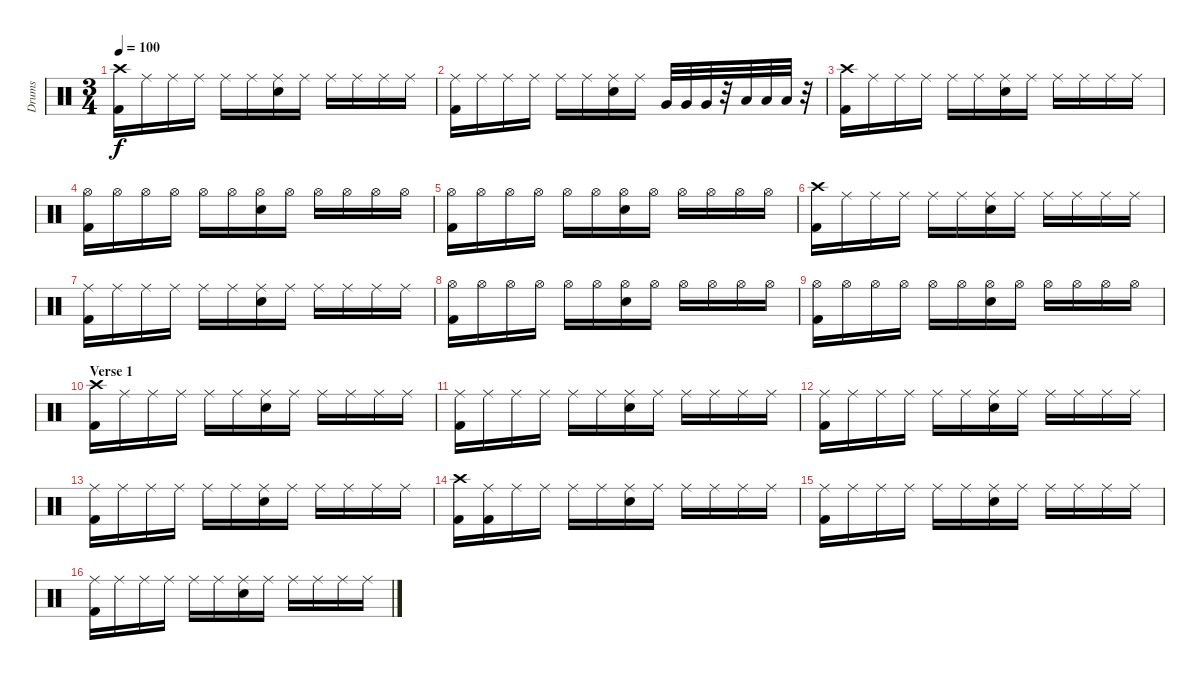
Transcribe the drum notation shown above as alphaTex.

\track ("Drums" "Drums") {instrument percussion}
\staff {score}
\articulation defaults
\ts (3 4)
\tempo 100
\clef neutral
\ks c
("Crash high (hit)" "Kick (hit) 2").16{dy f} "Ride (middle)".16 "Ride (middle)".16 "Ride (middle)".16 "Ride (middle)".16 "Ride (middle)".16 ("Ride (middle)" "Electric Snare (hit)").16 "Ride (middle)".16 "Ride (middle)".16 "Ride (middle)".16 "Ride (middle)".16 "Ride (middle)".16 |
("Ride (middle)" "Kick (hit) 2").16 "Ride (middle)".16 "Ride (middle)".16 "Ride (middle)".16 "Ride (middle)".16 "Ride (middle)".16 ("Ride (middle)" "Electric Snare (hit)").16 "Ride (middle)".16 "Very Low Tom (hit)".32 "Very Low Tom (hit)".32 "Very Low Tom (hit)".32 r.32 "Low Floor Tom (hit)".32 "Low Floor Tom (hit)".32 "Low Floor Tom (hit)".32 r.32 |
("Crash high (hit)" "Kick (hit) 2").16 "Ride (middle)".16 "Ride (middle)".16 "Ride (middle)".16 "Ride (middle)".16 "Ride (middle)".16 ("Ride (middle)" "Electric Snare (hit)").16 "Ride (middle)".16 "Ride (middle)".16 "Ride (middle)".16 "Ride (middle)".16 "Ride (middle)".16 |
("Hi-Hat (open)" "Kick (hit) 2").16 "Hi-Hat (open)".16 "Hi-Hat (open)".16 "Hi-Hat (open)".16 "Hi-Hat (open)".16 "Hi-Hat (open)".16 ("Hi-Hat (open)" "Electric Snare (hit)").16 "Hi-Hat (open)".16 "Hi-Hat (open)".16 "Hi-Hat (open)".16 "Hi-Hat (open)".16 "Hi-Hat (open)".16 |
("Hi-Hat (open)" "Kick (hit) 2").16 "Hi-Hat (open)".16 "Hi-Hat (open)".16 "Hi-Hat (open)".16 "Hi-Hat (open)".16 "Hi-Hat (open)".16 ("Hi-Hat (open)" "Electric Snare (hit)").16 "Hi-Hat (open)".16 "Hi-Hat (open)".16 "Hi-Hat (open)".16 "Hi-Hat (open)".16 "Hi-Hat (open)".16 |
("Crash high (hit)" "Kick (hit) 2").16 "Ride (middle)".16 "Ride (middle)".16 "Ride (middle)".16 "Ride (middle)".16 "Ride (middle)".16 ("Ride (middle)" "Electric Snare (hit)").16 "Ride (middle)".16 "Ride (middle)".16 "Ride (middle)".16 "Ride (middle)".16 "Ride (middle)".16 |
("Ride (middle)" "Kick (hit) 2").16 "Ride (middle)".16 "Ride (middle)".16 "Ride (middle)".16 "Ride (middle)".16 "Ride (middle)".16 ("Ride (middle)" "Electric Snare (hit)").16 "Ride (middle)".16 "Ride (middle)".16 "Ride (middle)".16 "Ride (middle)".16 "Ride (middle)".16 |
("Hi-Hat (open)" "Kick (hit) 2").16 "Hi-Hat (open)".16 "Hi-Hat (open)".16 "Hi-Hat (open)".16 "Hi-Hat (open)".16 "Hi-Hat (open)".16 ("Hi-Hat (open)" "Electric Snare (hit)").16 "Hi-Hat (open)".16 "Hi-Hat (open)".16 "Hi-Hat (open)".16 "Hi-Hat (open)".16 "Hi-Hat (open)".16 |
("Hi-Hat (open)" "Kick (hit) 2").16 "Hi-Hat (open)".16 "Hi-Hat (open)".16 "Hi-Hat (open)".16 "Hi-Hat (open)".16 "Hi-Hat (open)".16 ("Hi-Hat (open)" "Electric Snare (hit)").16 "Hi-Hat (open)".16 "Hi-Hat (open)".16 "Hi-Hat (open)".16 "Hi-Hat (open)".16 "Hi-Hat (open)".16 |
\section ("" "Verse 1")
("Crash high (hit)" "Kick (hit) 2").16 "Ride (middle)".16 "Ride (middle)".16 "Ride (middle)".16 "Ride (middle)".16 "Ride (middle)".16 ("Ride (middle)" "Electric Snare (hit)").16 "Ride (middle)".16 "Ride (middle)".16 "Ride (middle)".16 "Ride (middle)".16 "Ride (middle)".16 |
("Ride (middle)" "Kick (hit) 2").16 "Ride (middle)".16 "Ride (middle)".16 "Ride (middle)".16 "Ride (middle)".16 "Ride (middle)".16 ("Ride (middle)" "Electric Snare (hit)").16 "Ride (middle)".16 "Ride (middle)".16 "Ride (middle)".16 "Ride (middle)".16 "Ride (middle)".16 |
("Ride (middle)" "Kick (hit) 2").16 "Ride (middle)".16 "Ride (middle)".16 "Ride (middle)".16 "Ride (middle)".16 "Ride (middle)".16 ("Ride (middle)" "Electric Snare (hit)").16 "Ride (middle)".16 "Ride (middle)".16 "Ride (middle)".16 "Ride (middle)".16 "Ride (middle)".16 |
("Ride (middle)" "Kick (hit) 2").16 "Ride (middle)".16 "Ride (middle)".16 "Ride (middle)".16 "Ride (middle)".16 "Ride (middle)".16 ("Ride (middle)" "Electric Snare (hit)").16 "Ride (middle)".16 "Ride (middle)".16 "Ride (middle)".16 "Ride (middle)".16 "Ride (middle)".16 |
("Crash high (hit)" "Kick (hit) 2").16 ("Ride (middle)" "Kick (hit) 2").16 "Ride (middle)".16 "Ride (middle)".16 "Ride (middle)".16 "Ride (middle)".16 ("Ride (middle)" "Electric Snare (hit)").16 "Ride (middle)".16 "Ride (middle)".16 "Ride (middle)".16 "Ride (middle)".16 "Ride (middle)".16 |
("Ride (middle)" "Kick (hit) 2").16 "Ride (middle)".16 "Ride (middle)".16 "Ride (middle)".16 "Ride (middle)".16 "Ride (middle)".16 ("Ride (middle)" "Electric Snare (hit)").16 "Ride (middle)".16 "Ride (middle)".16 "Ride (middle)".16 "Ride (middle)".16 "Ride (middle)".16 |
("Ride (middle)" "Kick (hit) 2").16 "Ride (middle)".16 "Ride (middle)".16 "Ride (middle)".16 "Ride (middle)".16 "Ride (middle)".16 ("Ride (middle)" "Electric Snare (hit)").16 "Ride (middle)".16 "Ride (middle)".16 "Ride (middle)".16 "Ride (middle)".16 "Ride (middle)".16
